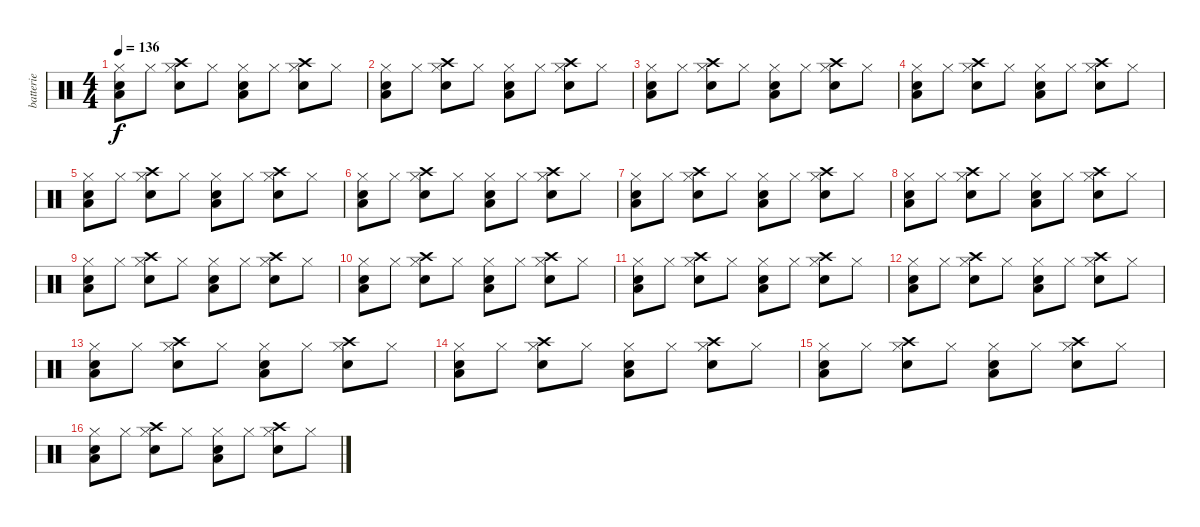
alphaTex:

\track ("batterie" "batterie") {instrument percussion}
\staff {score}
\articulation defaults
\ts (4 4)
\tempo 136
\clef neutral
\ks c
("Hi-Hat (closed)" "Snare (hit) 2" "Low Floor Tom (hit)").8{dy f} "Hi-Hat (closed)".8 ("Hi-Hat (closed)" "Crash high (hit)" "Electric Snare (hit)").8 "Hi-Hat (closed)".8 ("Hi-Hat (closed)" "Snare (hit) 2" "Low Floor Tom (hit)").8 "Hi-Hat (closed)".8 ("Hi-Hat (closed)" "Crash high (hit)" "Electric Snare (hit)").8 "Hi-Hat (closed)".8 |
("Hi-Hat (closed)" "Snare (hit) 2" "Low Floor Tom (hit)").8 "Hi-Hat (closed)".8 ("Hi-Hat (closed)" "Crash high (hit)" "Electric Snare (hit)").8 "Hi-Hat (closed)".8 ("Hi-Hat (closed)" "Snare (hit) 2" "Low Floor Tom (hit)").8 "Hi-Hat (closed)".8 ("Hi-Hat (closed)" "Crash high (hit)" "Electric Snare (hit)").8 "Hi-Hat (closed)".8 |
("Hi-Hat (closed)" "Snare (hit) 2" "Low Floor Tom (hit)").8 "Hi-Hat (closed)".8 ("Hi-Hat (closed)" "Crash high (hit)" "Electric Snare (hit)").8 "Hi-Hat (closed)".8 ("Hi-Hat (closed)" "Snare (hit) 2" "Low Floor Tom (hit)").8 "Hi-Hat (closed)".8 ("Hi-Hat (closed)" "Crash high (hit)" "Electric Snare (hit)").8 "Hi-Hat (closed)".8 |
("Hi-Hat (closed)" "Snare (hit) 2" "Low Floor Tom (hit)").8 "Hi-Hat (closed)".8 ("Hi-Hat (closed)" "Crash high (hit)" "Electric Snare (hit)").8 "Hi-Hat (closed)".8 ("Hi-Hat (closed)" "Snare (hit) 2" "Low Floor Tom (hit)").8 "Hi-Hat (closed)".8 ("Hi-Hat (closed)" "Crash high (hit)" "Electric Snare (hit)").8 "Hi-Hat (closed)".8 |
("Hi-Hat (closed)" "Snare (hit) 2" "Low Floor Tom (hit)").8 "Hi-Hat (closed)".8 ("Hi-Hat (closed)" "Crash high (hit)" "Electric Snare (hit)").8 "Hi-Hat (closed)".8 ("Hi-Hat (closed)" "Snare (hit) 2" "Low Floor Tom (hit)").8 "Hi-Hat (closed)".8 ("Hi-Hat (closed)" "Crash high (hit)" "Electric Snare (hit)").8 "Hi-Hat (closed)".8 |
("Hi-Hat (closed)" "Snare (hit) 2" "Low Floor Tom (hit)").8 "Hi-Hat (closed)".8 ("Hi-Hat (closed)" "Crash high (hit)" "Electric Snare (hit)").8 "Hi-Hat (closed)".8 ("Hi-Hat (closed)" "Snare (hit) 2" "Low Floor Tom (hit)").8 "Hi-Hat (closed)".8 ("Hi-Hat (closed)" "Crash high (hit)" "Electric Snare (hit)").8 "Hi-Hat (closed)".8 |
("Hi-Hat (closed)" "Snare (hit) 2" "Low Floor Tom (hit)").8 "Hi-Hat (closed)".8 ("Hi-Hat (closed)" "Crash high (hit)" "Electric Snare (hit)").8 "Hi-Hat (closed)".8 ("Hi-Hat (closed)" "Snare (hit) 2" "Low Floor Tom (hit)").8 "Hi-Hat (closed)".8 ("Hi-Hat (closed)" "Crash high (hit)" "Electric Snare (hit)").8 "Hi-Hat (closed)".8 |
("Hi-Hat (closed)" "Snare (hit) 2" "Low Floor Tom (hit)").8 "Hi-Hat (closed)".8 ("Hi-Hat (closed)" "Crash high (hit)" "Electric Snare (hit)").8 "Hi-Hat (closed)".8 ("Hi-Hat (closed)" "Snare (hit) 2" "Low Floor Tom (hit)").8 "Hi-Hat (closed)".8 ("Hi-Hat (closed)" "Crash high (hit)" "Electric Snare (hit)").8 "Hi-Hat (closed)".8 |
("Hi-Hat (closed)" "Snare (hit) 2" "Low Floor Tom (hit)").8 "Hi-Hat (closed)".8 ("Hi-Hat (closed)" "Crash high (hit)" "Electric Snare (hit)").8 "Hi-Hat (closed)".8 ("Hi-Hat (closed)" "Snare (hit) 2" "Low Floor Tom (hit)").8 "Hi-Hat (closed)".8 ("Hi-Hat (closed)" "Crash high (hit)" "Electric Snare (hit)").8 "Hi-Hat (closed)".8 |
("Hi-Hat (closed)" "Snare (hit) 2" "Low Floor Tom (hit)").8 "Hi-Hat (closed)".8 ("Hi-Hat (closed)" "Crash high (hit)" "Electric Snare (hit)").8 "Hi-Hat (closed)".8 ("Hi-Hat (closed)" "Snare (hit) 2" "Low Floor Tom (hit)").8 "Hi-Hat (closed)".8 ("Hi-Hat (closed)" "Crash high (hit)" "Electric Snare (hit)").8 "Hi-Hat (closed)".8 |
("Hi-Hat (closed)" "Snare (hit) 2" "Low Floor Tom (hit)").8 "Hi-Hat (closed)".8 ("Hi-Hat (closed)" "Crash high (hit)" "Electric Snare (hit)").8 "Hi-Hat (closed)".8 ("Hi-Hat (closed)" "Snare (hit) 2" "Low Floor Tom (hit)").8 "Hi-Hat (closed)".8 ("Hi-Hat (closed)" "Crash high (hit)" "Electric Snare (hit)").8 "Hi-Hat (closed)".8 |
("Hi-Hat (closed)" "Snare (hit) 2" "Low Floor Tom (hit)").8 "Hi-Hat (closed)".8 ("Hi-Hat (closed)" "Crash high (hit)" "Electric Snare (hit)").8 "Hi-Hat (closed)".8 ("Hi-Hat (closed)" "Snare (hit) 2" "Low Floor Tom (hit)").8 "Hi-Hat (closed)".8 ("Hi-Hat (closed)" "Crash high (hit)" "Electric Snare (hit)").8 "Hi-Hat (closed)".8 |
("Hi-Hat (closed)" "Snare (hit) 2" "Low Floor Tom (hit)").8 "Hi-Hat (closed)".8 ("Hi-Hat (closed)" "Crash high (hit)" "Electric Snare (hit)").8 "Hi-Hat (closed)".8 ("Hi-Hat (closed)" "Snare (hit) 2" "Low Floor Tom (hit)").8 "Hi-Hat (closed)".8 ("Hi-Hat (closed)" "Crash high (hit)" "Electric Snare (hit)").8 "Hi-Hat (closed)".8 |
("Hi-Hat (closed)" "Snare (hit) 2" "Low Floor Tom (hit)").8 "Hi-Hat (closed)".8 ("Hi-Hat (closed)" "Crash high (hit)" "Electric Snare (hit)").8 "Hi-Hat (closed)".8 ("Hi-Hat (closed)" "Snare (hit) 2" "Low Floor Tom (hit)").8 "Hi-Hat (closed)".8 ("Hi-Hat (closed)" "Crash high (hit)" "Electric Snare (hit)").8 "Hi-Hat (closed)".8 |
("Hi-Hat (closed)" "Snare (hit) 2" "Low Floor Tom (hit)").8 "Hi-Hat (closed)".8 ("Hi-Hat (closed)" "Crash high (hit)" "Electric Snare (hit)").8 "Hi-Hat (closed)".8 ("Hi-Hat (closed)" "Snare (hit) 2" "Low Floor Tom (hit)").8 "Hi-Hat (closed)".8 ("Hi-Hat (closed)" "Crash high (hit)" "Electric Snare (hit)").8 "Hi-Hat (closed)".8 |
("Hi-Hat (closed)" "Snare (hit) 2" "Low Floor Tom (hit)").8 "Hi-Hat (closed)".8 ("Hi-Hat (closed)" "Crash high (hit)" "Electric Snare (hit)").8 "Hi-Hat (closed)".8 ("Hi-Hat (closed)" "Snare (hit) 2" "Low Floor Tom (hit)").8 "Hi-Hat (closed)".8 ("Hi-Hat (closed)" "Crash high (hit)" "Electric Snare (hit)").8 "Hi-Hat (closed)".8
